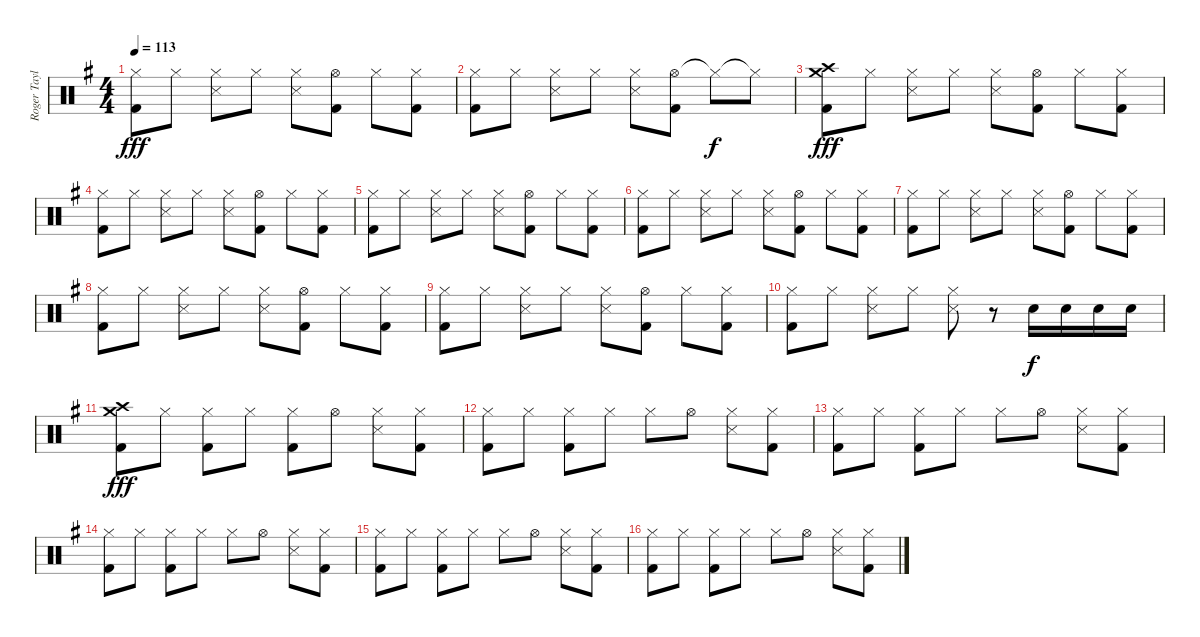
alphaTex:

\track ("Roger Taylor" "Roger Tayl") {instrument percussion}
\staff {score}
\articulation defaults
\ts (4 4)
\tempo 113
\clef neutral
\ks g
("Hi-Hat (closed)" "Kick (hit) 2").8{dy fff} "Hi-Hat (closed)".8 ("Hi-Hat (closed)" "Snare (side stick) 3").8 "Hi-Hat (closed)".8 ("Hi-Hat (closed)" "Snare (side stick) 3").8 ("Hi-Hat (open)" "Kick (hit) 2").8 "Hi-Hat (closed)".8 ("Hi-Hat (closed)" "Kick (hit) 2").8 |
("Hi-Hat (closed)" "Kick (hit) 2").8 "Hi-Hat (closed)".8 ("Hi-Hat (closed)" "Snare (side stick) 3").8 "Hi-Hat (closed)".8 ("Hi-Hat (closed)" "Snare (side stick) 3").8 ("Hi-Hat (open)" "Kick (hit) 2").8 "Hi-Hat (closed)"{t}.8{dy f} "Hi-Hat (closed)"{t}.8 |
("Crash high (hit)" "Crash medium (hit)" "Kick (hit) 2").8{dy fff} "Hi-Hat (closed)".8 ("Hi-Hat (closed)" "Snare (side stick) 3").8 "Hi-Hat (closed)".8 ("Hi-Hat (closed)" "Snare (side stick) 3").8 ("Hi-Hat (open)" "Kick (hit) 2").8 "Hi-Hat (closed)".8 ("Hi-Hat (closed)" "Kick (hit) 2").8 |
("Hi-Hat (closed)" "Kick (hit) 2").8 "Hi-Hat (closed)".8 ("Hi-Hat (closed)" "Snare (side stick) 3").8 "Hi-Hat (closed)".8 ("Hi-Hat (closed)" "Snare (side stick) 3").8 ("Hi-Hat (open)" "Kick (hit) 2").8 "Hi-Hat (closed)".8 ("Hi-Hat (closed)" "Kick (hit) 2").8 |
("Hi-Hat (closed)" "Kick (hit) 2").8 "Hi-Hat (closed)".8 ("Hi-Hat (closed)" "Snare (side stick) 3").8 "Hi-Hat (closed)".8 ("Hi-Hat (closed)" "Snare (side stick) 3").8 ("Hi-Hat (open)" "Kick (hit) 2").8 "Hi-Hat (closed)".8 ("Hi-Hat (closed)" "Kick (hit) 2").8 |
("Hi-Hat (closed)" "Kick (hit) 2").8 "Hi-Hat (closed)".8 ("Hi-Hat (closed)" "Snare (side stick) 3").8 "Hi-Hat (closed)".8 ("Hi-Hat (closed)" "Snare (side stick) 3").8 ("Hi-Hat (open)" "Kick (hit) 2").8 "Hi-Hat (closed)".8 ("Hi-Hat (closed)" "Kick (hit) 2").8 |
("Hi-Hat (closed)" "Kick (hit) 2").8 "Hi-Hat (closed)".8 ("Hi-Hat (closed)" "Snare (side stick) 3").8 "Hi-Hat (closed)".8 ("Hi-Hat (closed)" "Snare (side stick) 3").8 ("Hi-Hat (open)" "Kick (hit) 2").8 "Hi-Hat (closed)".8 ("Hi-Hat (closed)" "Kick (hit) 2").8 |
("Hi-Hat (closed)" "Kick (hit) 2").8 "Hi-Hat (closed)".8 ("Hi-Hat (closed)" "Snare (side stick) 3").8 "Hi-Hat (closed)".8 ("Hi-Hat (closed)" "Snare (side stick) 3").8 ("Hi-Hat (open)" "Kick (hit) 2").8 "Hi-Hat (closed)".8 ("Hi-Hat (closed)" "Kick (hit) 2").8 |
("Hi-Hat (closed)" "Kick (hit) 2").8 "Hi-Hat (closed)".8 ("Hi-Hat (closed)" "Snare (side stick) 3").8 "Hi-Hat (closed)".8 ("Hi-Hat (closed)" "Snare (side stick) 3").8 ("Hi-Hat (open)" "Kick (hit) 2").8 "Hi-Hat (closed)".8 ("Hi-Hat (closed)" "Kick (hit) 2").8 |
("Hi-Hat (closed)" "Kick (hit) 2").8 "Hi-Hat (closed)".8 ("Hi-Hat (closed)" "Snare (side stick) 3").8 "Hi-Hat (closed)".8 ("Hi-Hat (closed)" "Snare (side stick) 3").8 r.8 "Snare (hit) 2".16{dy f} "Snare (hit) 2".16 "Snare (hit) 2".16 "Snare (hit) 2".16 |
("Crash high (hit)" "Crash medium (hit)" "Kick (hit) 2").8{dy fff} "Hi-Hat (closed)".8 ("Hi-Hat (closed)" "Kick (hit) 2").8 "Hi-Hat (closed)".8 ("Hi-Hat (closed)" "Kick (hit) 2").8 "Hi-Hat (open)".8 ("Hi-Hat (closed)" "Snare (side stick) 3").8 ("Hi-Hat (closed)" "Kick (hit) 2").8 |
("Hi-Hat (closed)" "Kick (hit) 2").8 "Hi-Hat (closed)".8 ("Hi-Hat (closed)" "Kick (hit) 2").8 "Hi-Hat (closed)".8 "Hi-Hat (closed)".8 "Hi-Hat (open)".8 ("Hi-Hat (closed)" "Snare (side stick) 3").8 ("Hi-Hat (closed)" "Kick (hit) 2").8 |
("Hi-Hat (closed)" "Kick (hit) 2").8 "Hi-Hat (closed)".8 ("Hi-Hat (closed)" "Kick (hit) 2").8 "Hi-Hat (closed)".8 "Hi-Hat (closed)".8 "Hi-Hat (open)".8 ("Hi-Hat (closed)" "Snare (side stick) 3").8 ("Hi-Hat (closed)" "Kick (hit) 2").8 |
("Hi-Hat (closed)" "Kick (hit) 2").8 "Hi-Hat (closed)".8 ("Hi-Hat (closed)" "Kick (hit) 2").8 "Hi-Hat (closed)".8 "Hi-Hat (closed)".8 "Hi-Hat (open)".8 ("Hi-Hat (closed)" "Snare (side stick) 3").8 ("Hi-Hat (closed)" "Kick (hit) 2").8 |
("Hi-Hat (closed)" "Kick (hit) 2").8 "Hi-Hat (closed)".8 ("Hi-Hat (closed)" "Kick (hit) 2").8 "Hi-Hat (closed)".8 "Hi-Hat (closed)".8 "Hi-Hat (open)".8 ("Hi-Hat (closed)" "Snare (side stick) 3").8 ("Hi-Hat (closed)" "Kick (hit) 2").8 |
("Hi-Hat (closed)" "Kick (hit) 2").8 "Hi-Hat (closed)".8 ("Hi-Hat (closed)" "Kick (hit) 2").8 "Hi-Hat (closed)".8 "Hi-Hat (closed)".8 "Hi-Hat (open)".8 ("Hi-Hat (closed)" "Snare (side stick) 3").8 ("Hi-Hat (closed)" "Kick (hit) 2").8
